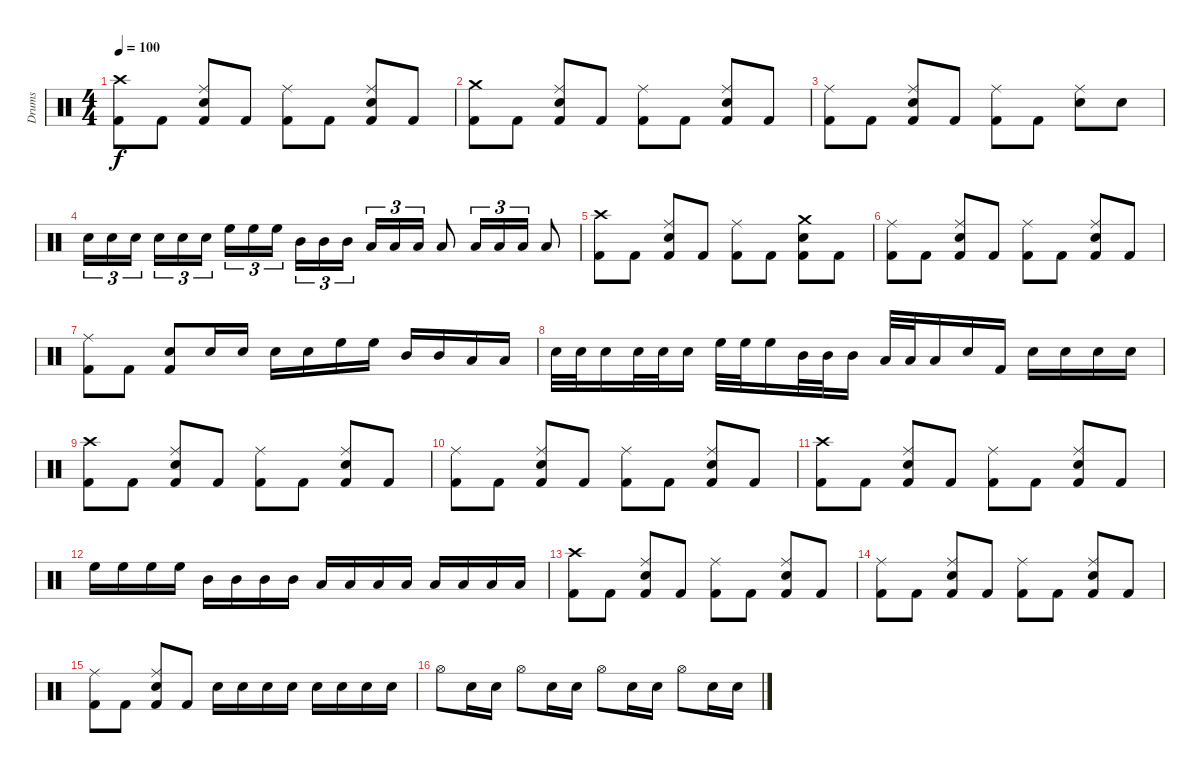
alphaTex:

\track ("Drums" "Drums") {instrument percussion}
\staff {score}
\articulation defaults
\ts (4 4)
\tempo 100
\clef neutral
\ks c
("Crash high (hit)" "Kick (hit) 2").8{dy f} "Kick (hit) 2".8 ("Ride (middle)" "Snare (hit) 2" "Kick (hit) 2").8 "Kick (hit) 2".8 ("Ride (middle)" "Kick (hit) 2").8 "Kick (hit) 2".8 ("Ride (middle)" "Snare (hit) 2" "Kick (hit) 2").8 "Kick (hit) 2".8 |
("Crash medium (hit)" "Kick (hit) 2").8 "Kick (hit) 2".8 ("Ride (middle)" "Snare (hit) 2" "Kick (hit) 2").8 "Kick (hit) 2".8 ("Ride (middle)" "Kick (hit) 2").8 "Kick (hit) 2".8 ("Ride (middle)" "Snare (hit) 2" "Kick (hit) 2").8 "Kick (hit) 2".8 |
("Ride (middle)" "Kick (hit) 2").8 "Kick (hit) 2".8 ("Ride (middle)" "Snare (hit) 2" "Kick (hit) 2").8 "Kick (hit) 2".8 ("Ride (middle)" "Kick (hit) 2").8 "Kick (hit) 2".8 ("Ride (middle)" "Snare (hit) 2").8 "Snare (hit) 2".8 |
"Snare (hit) 2".16{tu (3 2)} "Snare (hit) 2".16{tu (3 2)} "Snare (hit) 2".16{tu (3 2)} "Snare (hit) 2".16{tu (3 2)} "Snare (hit) 2".16{tu (3 2)} "Snare (hit) 2".16{tu (3 2)} "High Floor Tom (hit)".16{tu (3 2)} "High Floor Tom (hit)".16{tu (3 2)} "High Floor Tom (hit)".16{tu (3 2)} "Mid Tom (hit)".16{tu (3 2)} "Mid Tom (hit)".16{tu (3 2)} "Mid Tom (hit)".16{tu (3 2)} "Low Tom (hit)".16{tu (3 2)} "Low Tom (hit)".16{tu (3 2)} "Low Tom (hit)".16{tu (3 2)} "Low Tom (hit)".8 "Low Floor Tom (hit)".16{tu (3 2)} "Low Floor Tom (hit)".16{tu (3 2)} "Low Floor Tom (hit)".16{tu (3 2)} "Low Floor Tom (hit)".8 |
("Crash high (hit)" "Kick (hit) 2").8 "Kick (hit) 2".8 ("Ride (middle)" "Snare (hit) 2" "Kick (hit) 2").8 "Kick (hit) 2".8 ("Ride (middle)" "Kick (hit) 2").8 "Kick (hit) 2".8 ("Crash medium (hit)" "Snare (hit) 2" "Kick (hit) 2").8 "Kick (hit) 2".8 |
("Ride (middle)" "Kick (hit) 2").8 "Kick (hit) 2".8 ("Ride (middle)" "Snare (hit) 2" "Kick (hit) 2").8 "Kick (hit) 2".8 ("Ride (middle)" "Kick (hit) 2").8 "Kick (hit) 2".8 ("Ride (middle)" "Snare (hit) 2" "Kick (hit) 2").8 "Kick (hit) 2".8 |
("Ride (middle)" "Kick (hit) 2").8 "Kick (hit) 2".8 ("Snare (hit) 2" "Kick (hit) 2").8 "Snare (hit) 2".16 "Snare (hit) 2".16 "Snare (hit) 2".16 "Snare (hit) 2".16 "High Floor Tom (hit)".16 "High Floor Tom (hit)".16 "Mid Tom (hit)".16 "Mid Tom (hit)".16 "Low Tom (hit)".16 "Low Tom (hit)".16 |
"Snare (hit) 2".32 "Snare (hit) 2".32 "Snare (hit) 2".16 "Snare (hit) 2".32 "Snare (hit) 2".32 "Snare (hit) 2".16 "High Floor Tom (hit)".32 "High Floor Tom (hit)".32 "High Floor Tom (hit)".16 "Mid Tom (hit)".32 "Mid Tom (hit)".32 "Mid Tom (hit)".16 "Low Tom (hit)".32 "Low Tom (hit)".32 "Low Tom (hit)".16 "Snare (hit) 2".16 "Kick (hit) 2".16 "Snare (hit) 2".16 "Snare (hit) 2".16 "Snare (hit) 2".16 "Snare (hit) 2".16 |
("Crash high (hit)" "Kick (hit) 2").8 "Kick (hit) 2".8 ("Ride (middle)" "Snare (hit) 2" "Kick (hit) 2").8 "Kick (hit) 2".8 ("Ride (middle)" "Kick (hit) 2").8 "Kick (hit) 2".8 ("Ride (middle)" "Snare (hit) 2" "Kick (hit) 2").8 "Kick (hit) 2".8 |
("Ride (middle)" "Kick (hit) 2").8 "Kick (hit) 2".8 ("Ride (middle)" "Snare (hit) 2" "Kick (hit) 2").8 "Kick (hit) 2".8 ("Ride (middle)" "Kick (hit) 2").8 "Kick (hit) 2".8 ("Ride (middle)" "Snare (hit) 2" "Kick (hit) 2").8 "Kick (hit) 2".8 |
("Crash high (hit)" "Kick (hit) 2").8 "Kick (hit) 2".8 ("Ride (middle)" "Snare (hit) 2" "Kick (hit) 2").8 "Kick (hit) 2".8 ("Ride (middle)" "Kick (hit) 2").8 "Kick (hit) 2".8 ("Ride (middle)" "Snare (hit) 2" "Kick (hit) 2").8 "Kick (hit) 2".8 |
"High Floor Tom (hit)".16 "High Floor Tom (hit)".16 "High Floor Tom (hit)".16 "High Floor Tom (hit)".16 "Mid Tom (hit)".16 "Mid Tom (hit)".16 "Mid Tom (hit)".16 "Mid Tom (hit)".16 "Low Tom (hit)".16 "Low Tom (hit)".16 "Low Tom (hit)".16 "Low Tom (hit)".16 "Low Floor Tom (hit)".16 "Low Floor Tom (hit)".16 "Low Floor Tom (hit)".16 "Low Floor Tom (hit)".16 |
("Crash high (hit)" "Kick (hit) 2").8 "Kick (hit) 2".8 ("Ride (middle)" "Snare (hit) 2" "Kick (hit) 2").8 "Kick (hit) 2".8 ("Ride (middle)" "Kick (hit) 2").8 "Kick (hit) 2".8 ("Ride (middle)" "Snare (hit) 2" "Kick (hit) 2").8 "Kick (hit) 2".8 |
("Ride (middle)" "Kick (hit) 2").8 "Kick (hit) 2".8 ("Ride (middle)" "Snare (hit) 2" "Kick (hit) 2").8 "Kick (hit) 2".8 ("Ride (middle)" "Kick (hit) 2").8 "Kick (hit) 2".8 ("Ride (middle)" "Snare (hit) 2" "Kick (hit) 2").8 "Kick (hit) 2".8 |
("Ride (middle)" "Kick (hit) 2").8 "Kick (hit) 2".8 ("Ride (middle)" "Snare (hit) 2" "Kick (hit) 2").8 "Kick (hit) 2".8 "Snare (hit) 2".16 "Snare (hit) 2".16 "Snare (hit) 2".16 "Snare (hit) 2".16 "Snare (hit) 2".16 "Snare (hit) 2".16 "Snare (hit) 2".16 "Snare (hit) 2".16 |
"Hi-Hat (open)".8 "Snare (hit) 2".16 "Snare (hit) 2".16 "Hi-Hat (open)".8 "Snare (hit) 2".16 "Snare (hit) 2".16 "Hi-Hat (open)".8 "Snare (hit) 2".16 "Snare (hit) 2".16 "Hi-Hat (open)".8 "Snare (hit) 2".16 "Snare (hit) 2".16
